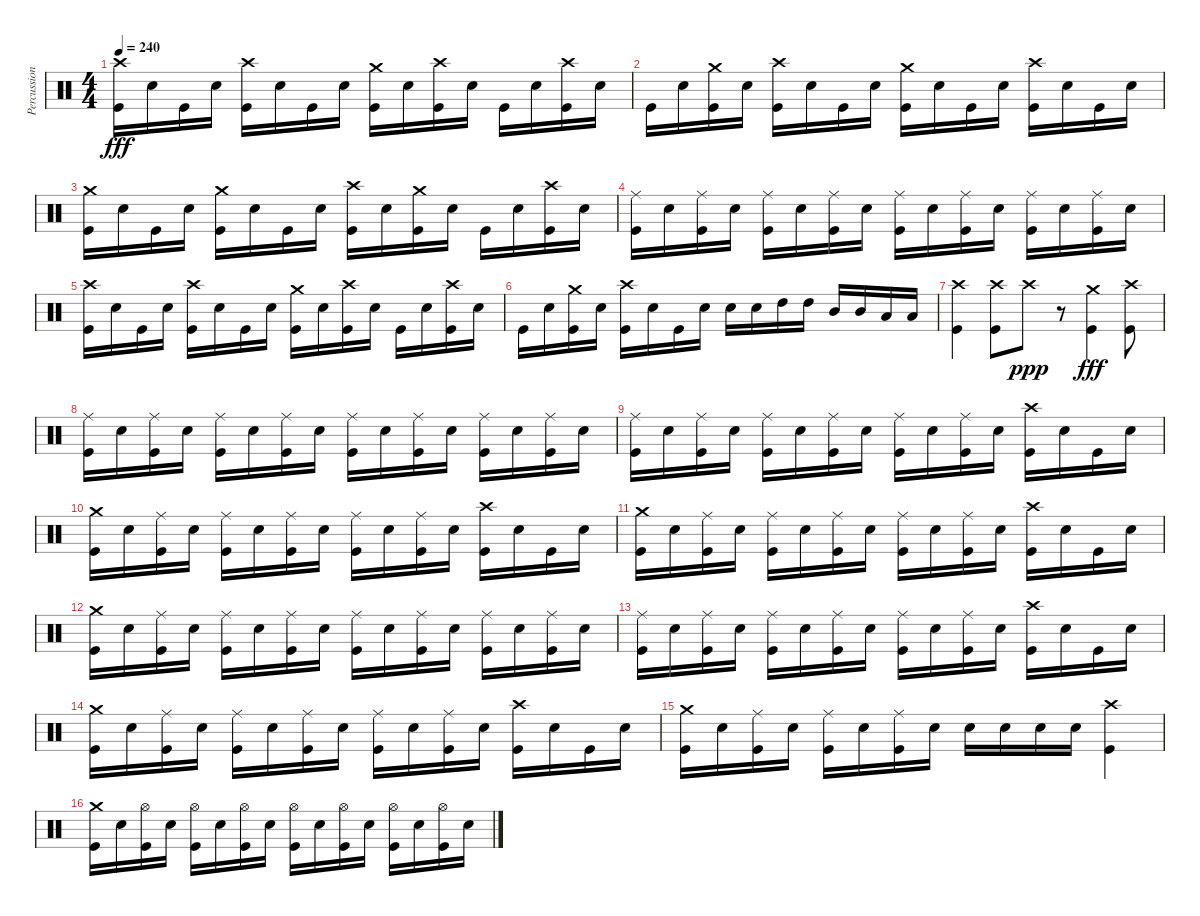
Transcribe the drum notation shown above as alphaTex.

\track ("Percussion" "Percussion") {instrument percussion}
\staff {score}
\articulation defaults
\ts (4 4)
\tempo 240
\clef neutral
\ks c
("Kick (hit)" "Crash high (hit)").16{dy fff} "Snare (hit) 2".16 "Kick (hit)".16 "Snare (hit) 2".16 ("Kick (hit)" "Crash high (hit)").16 "Snare (hit) 2".16 "Kick (hit)".16 "Snare (hit) 2".16 ("Kick (hit)" "Crash medium (hit)").16 "Snare (hit) 2".16 ("Kick (hit)" "Crash high (hit)").16 "Snare (hit) 2".16 "Kick (hit)".16 "Snare (hit) 2".16 ("Kick (hit)" "Crash high (hit)").16 "Snare (hit) 2".16 |
"Kick (hit)".16 "Snare (hit) 2".16 ("Kick (hit)" "Crash medium (hit)").16 "Snare (hit) 2".16 ("Kick (hit)" "Crash high (hit)").16 "Snare (hit) 2".16 "Kick (hit)".16 "Snare (hit) 2".16 ("Kick (hit)" "Crash medium (hit)").16 "Snare (hit) 2".16 "Kick (hit)".16 "Snare (hit) 2".16 ("Crash high (hit)" "Kick (hit)").16 "Snare (hit) 2".16 "Kick (hit)".16 "Snare (hit) 2".16 |
("Kick (hit)" "Crash medium (hit)").16 "Snare (hit) 2".16 "Kick (hit)".16 "Snare (hit) 2".16 ("Kick (hit)" "Crash medium (hit)").16 "Snare (hit) 2".16 "Kick (hit)".16 "Snare (hit) 2".16 ("Kick (hit)" "Crash high (hit)").16 "Snare (hit) 2".16 ("Kick (hit)" "Crash medium (hit)").16 "Snare (hit) 2".16 "Kick (hit)".16 "Snare (hit) 2".16 ("Kick (hit)" "Crash high (hit)").16 "Snare (hit) 2".16 |
("Kick (hit)" "Ride (middle)").16 "Snare (hit) 2".16 ("Kick (hit)" "Ride (middle)").16 "Snare (hit) 2".16 ("Kick (hit)" "Ride (middle)").16 "Snare (hit) 2".16 ("Kick (hit)" "Ride (middle)").16 "Snare (hit) 2".16 ("Kick (hit)" "Ride (middle)").16 "Snare (hit) 2".16 ("Kick (hit)" "Ride (middle)").16 "Snare (hit) 2".16 ("Kick (hit)" "Ride (middle)").16 "Snare (hit) 2".16 ("Kick (hit)" "Ride (middle)").16 "Snare (hit) 2".16 |
("Kick (hit)" "Crash high (hit)").16 "Snare (hit) 2".16 "Kick (hit)".16 "Snare (hit) 2".16 ("Kick (hit)" "Crash high (hit)").16 "Snare (hit) 2".16 "Kick (hit)".16 "Snare (hit) 2".16 ("Kick (hit)" "Crash medium (hit)").16 "Snare (hit) 2".16 ("Kick (hit)" "Crash high (hit)").16 "Snare (hit) 2".16 "Kick (hit)".16 "Snare (hit) 2".16 ("Kick (hit)" "Crash high (hit)").16 "Snare (hit) 2".16 |
"Kick (hit)".16 "Snare (hit) 2".16 ("Kick (hit)" "Crash medium (hit)").16 "Snare (hit) 2".16 ("Kick (hit)" "Crash high (hit)").16 "Snare (hit) 2".16 "Kick (hit)".16 "Snare (hit) 2".16 "Snare (hit) 2".16 "Snare (hit) 2".16 "High Tom (hit)".16 "High Tom (hit)".16 "Mid Tom (hit)".16 "Mid Tom (hit)".16 "Low Tom (hit)".16 "Low Tom (hit)".16 |
("Kick (hit)" "Crash high (hit)").4 ("Kick (hit)" "Crash high (hit)").8 "Crash high (hit)".8{dy ppp} r.8 ("Crash medium (hit)" "Kick (hit)").4{dy fff} ("Crash high (hit)" "Kick (hit)").8 |
("Kick (hit)" "Ride (middle)").16 "Snare (hit) 2".16 ("Kick (hit)" "Ride (middle)").16 "Snare (hit) 2".16 ("Kick (hit)" "Ride (middle)").16 "Snare (hit) 2".16 ("Kick (hit)" "Ride (middle)").16 "Snare (hit) 2".16 ("Kick (hit)" "Ride (middle)").16 "Snare (hit) 2".16 ("Kick (hit)" "Ride (middle)").16 "Snare (hit) 2".16 ("Kick (hit)" "Ride (middle)").16 "Snare (hit) 2".16 ("Kick (hit)" "Ride (middle)").16 "Snare (hit) 2".16 |
("Kick (hit)" "Ride (middle)").16 "Snare (hit) 2".16 ("Kick (hit)" "Ride (middle)").16 "Snare (hit) 2".16 ("Kick (hit)" "Ride (middle)").16 "Snare (hit) 2".16 ("Kick (hit)" "Ride (middle)").16 "Snare (hit) 2".16 ("Kick (hit)" "Ride (middle)").16 "Snare (hit) 2".16 ("Kick (hit)" "Ride (middle)").16 "Snare (hit) 2".16 ("Kick (hit)" "Crash high (hit)").16 "Snare (hit) 2".16 "Kick (hit)".16 "Snare (hit) 2".16 |
("Kick (hit)" "Crash medium (hit)").16 "Snare (hit) 2".16 ("Kick (hit)" "Ride (middle)").16 "Snare (hit) 2".16 ("Kick (hit)" "Ride (middle)").16 "Snare (hit) 2".16 ("Kick (hit)" "Ride (middle)").16 "Snare (hit) 2".16 ("Kick (hit)" "Ride (middle)").16 "Snare (hit) 2".16 ("Kick (hit)" "Ride (middle)").16 "Snare (hit) 2".16 ("Kick (hit)" "Crash high (hit)").16 "Snare (hit) 2".16 "Kick (hit)".16 "Snare (hit) 2".16 |
("Kick (hit)" "Crash medium (hit)").16 "Snare (hit) 2".16 ("Kick (hit)" "Ride (middle)").16 "Snare (hit) 2".16 ("Kick (hit)" "Ride (middle)").16 "Snare (hit) 2".16 ("Kick (hit)" "Ride (middle)").16 "Snare (hit) 2".16 ("Kick (hit)" "Ride (middle)").16 "Snare (hit) 2".16 ("Kick (hit)" "Ride (middle)").16 "Snare (hit) 2".16 ("Kick (hit)" "Crash high (hit)").16 "Snare (hit) 2".16 "Kick (hit)".16 "Snare (hit) 2".16 |
("Kick (hit)" "Crash medium (hit)").16 "Snare (hit) 2".16 ("Kick (hit)" "Ride (middle)").16 "Snare (hit) 2".16 ("Kick (hit)" "Ride (middle)").16 "Snare (hit) 2".16 ("Kick (hit)" "Ride (middle)").16 "Snare (hit) 2".16 ("Kick (hit)" "Ride (middle)").16 "Snare (hit) 2".16 ("Kick (hit)" "Ride (middle)").16 "Snare (hit) 2".16 ("Kick (hit)" "Ride (middle)").16 "Snare (hit) 2".16 ("Kick (hit)" "Ride (middle)").16 "Snare (hit) 2".16 |
("Kick (hit)" "Ride (middle)").16 "Snare (hit) 2".16 ("Kick (hit)" "Ride (middle)").16 "Snare (hit) 2".16 ("Kick (hit)" "Ride (middle)").16 "Snare (hit) 2".16 ("Kick (hit)" "Ride (middle)").16 "Snare (hit) 2".16 ("Kick (hit)" "Ride (middle)").16 "Snare (hit) 2".16 ("Kick (hit)" "Ride (middle)").16 "Snare (hit) 2".16 ("Kick (hit)" "Crash high (hit)").16 "Snare (hit) 2".16 "Kick (hit)".16 "Snare (hit) 2".16 |
("Kick (hit)" "Crash medium (hit)").16 "Snare (hit) 2".16 ("Kick (hit)" "Ride (middle)").16 "Snare (hit) 2".16 ("Kick (hit)" "Ride (middle)").16 "Snare (hit) 2".16 ("Kick (hit)" "Ride (middle)").16 "Snare (hit) 2".16 ("Kick (hit)" "Ride (middle)").16 "Snare (hit) 2".16 ("Kick (hit)" "Ride (middle)").16 "Snare (hit) 2".16 ("Kick (hit)" "Crash high (hit)").16 "Snare (hit) 2".16 "Kick (hit)".16 "Snare (hit) 2".16 |
("Kick (hit)" "Crash medium (hit)").16 "Snare (hit) 2".16 ("Kick (hit)" "Ride (middle)").16 "Snare (hit) 2".16 ("Kick (hit)" "Ride (middle)").16 "Snare (hit) 2".16 ("Kick (hit)" "Ride (middle)").16 "Snare (hit) 2".16 "Snare (hit) 2".16 "Snare (hit) 2".16 "Snare (hit) 2".16 "Snare (hit) 2".16 ("Kick (hit)" "Crash high (hit)").4 |
("Kick (hit)" "Crash medium (hit)").16 "Snare (hit) 2".16 ("Kick (hit)" "Hi-Hat (open)").16 "Snare (hit) 2".16 ("Kick (hit)" "Hi-Hat (open)").16 "Snare (hit) 2".16 ("Kick (hit)" "Hi-Hat (open)").16 "Snare (hit) 2".16 ("Kick (hit)" "Hi-Hat (open)").16 "Snare (hit) 2".16 ("Kick (hit)" "Hi-Hat (open)").16 "Snare (hit) 2".16 ("Kick (hit)" "Hi-Hat (open)").16 "Snare (hit) 2".16 ("Kick (hit)" "Hi-Hat (open)").16 "Snare (hit) 2".16
